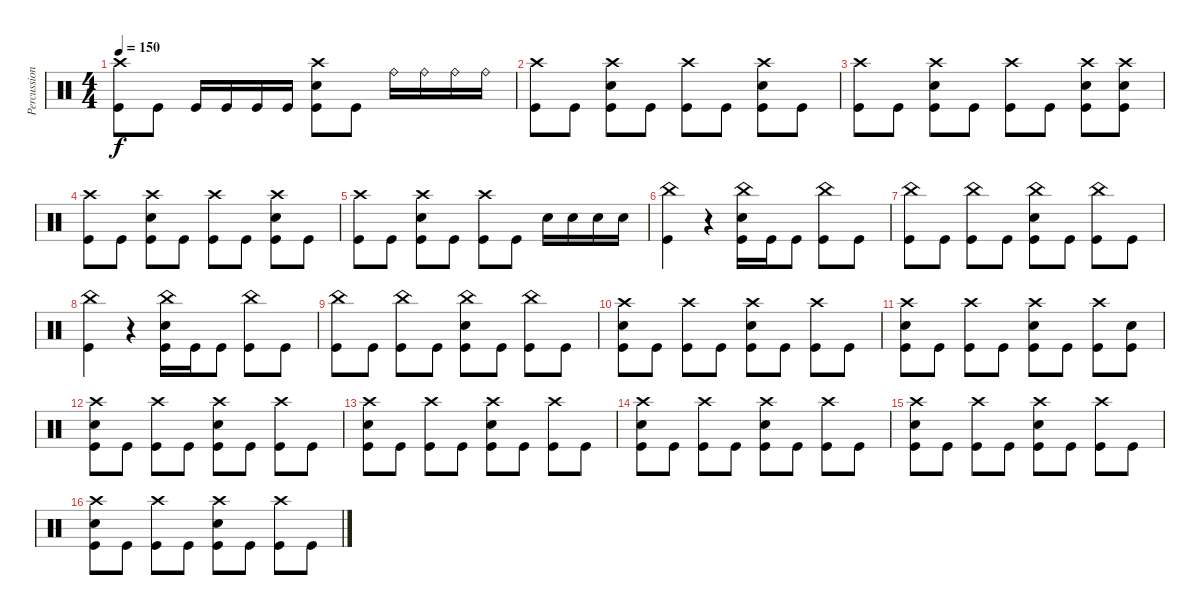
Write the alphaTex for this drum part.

\track ("Percussion" "Percussion") {instrument percussion}
\staff {score}
\articulation defaults
\ts (4 4)
\tempo 150
\clef neutral
\ks c
("Crash high (hit)" "Kick (hit)").8{dy f} "Kick (hit)".8 "Kick (hit)".16 "Kick (hit)".16 "Kick (hit)".16 "Kick (hit)".16 ("Crash high (hit)" "Electric Snare (hit)" "Kick (hit)").8 "Kick (hit)".8 "Ride (bell)".16 "Ride (bell)".16 "Ride (bell)".16 "Ride (bell)".16 |
("Crash high (hit)" "Kick (hit)").8 "Kick (hit)".8 ("Crash high (hit)" "Kick (hit)" "Electric Snare (hit)").8 "Kick (hit)".8 ("Crash high (hit)" "Kick (hit)").8 "Kick (hit)".8 ("Crash high (hit)" "Kick (hit)" "Electric Snare (hit)").8 "Kick (hit)".8 |
("Crash high (hit)" "Kick (hit)").8 "Kick (hit)".8 ("Crash high (hit)" "Kick (hit)" "Electric Snare (hit)").8 "Kick (hit)".8 ("Crash high (hit)" "Kick (hit)").8 "Kick (hit)".8 ("Crash high (hit)" "Kick (hit)" "Electric Snare (hit)").8 ("Crash high (hit)" "Kick (hit)" "Electric Snare (hit)").8 |
("Crash high (hit)" "Kick (hit)").8 "Kick (hit)".8 ("Crash high (hit)" "Kick (hit)" "Electric Snare (hit)").8 "Kick (hit)".8 ("Crash high (hit)" "Kick (hit)").8 "Kick (hit)".8 ("Crash high (hit)" "Kick (hit)" "Electric Snare (hit)").8 "Kick (hit)".8 |
("Crash high (hit)" "Kick (hit)").8 "Kick (hit)".8 ("Crash high (hit)" "Kick (hit)" "Electric Snare (hit)").8 "Kick (hit)".8 ("Crash high (hit)" "Kick (hit)").8 "Kick (hit)".8 "Electric Snare (hit)".16 "Electric Snare (hit)".16 "Electric Snare (hit)".16 "Electric Snare (hit)".16 |
("China (hit)" "Kick (hit)").4 r.4 ("China (hit)" "Electric Snare (hit)" "Kick (hit)").16 "Kick (hit)".16 "Kick (hit)".8 ("China (hit)" "Kick (hit)").8 "Kick (hit)".8 |
("China (hit)" "Kick (hit)").8 "Kick (hit)".8 ("China (hit)" "Kick (hit)").8 "Kick (hit)".8 ("China (hit)" "Electric Snare (hit)" "Kick (hit)").8 "Kick (hit)".8 ("China (hit)" "Kick (hit)").8 "Kick (hit)".8 |
("China (hit)" "Kick (hit)").4 r.4 ("China (hit)" "Electric Snare (hit)" "Kick (hit)").16 "Kick (hit)".16 "Kick (hit)".8 ("China (hit)" "Kick (hit)").8 "Kick (hit)".8 |
("China (hit)" "Kick (hit)").8 "Kick (hit)".8 ("China (hit)" "Kick (hit)").8 "Kick (hit)".8 ("China (hit)" "Electric Snare (hit)" "Kick (hit)").8 "Kick (hit)".8 ("China (hit)" "Kick (hit)").8 "Kick (hit)".8 |
("Kick (hit)" "Crash high (hit)" "Electric Snare (hit)").8 "Kick (hit)".8 ("Kick (hit)" "Crash high (hit)").8 "Kick (hit)".8 ("Kick (hit)" "Crash high (hit)" "Electric Snare (hit)").8 "Kick (hit)".8 ("Kick (hit)" "Crash high (hit)").8 "Kick (hit)".8 |
("Kick (hit)" "Crash high (hit)" "Electric Snare (hit)").8 "Kick (hit)".8 ("Kick (hit)" "Crash high (hit)").8 "Kick (hit)".8 ("Kick (hit)" "Crash high (hit)" "Electric Snare (hit)").8 "Kick (hit)".8 ("Kick (hit)" "Crash high (hit)").8 ("Kick (hit)" "Electric Snare (hit)").8 |
("Kick (hit)" "Crash high (hit)" "Electric Snare (hit)").8 "Kick (hit)".8 ("Kick (hit)" "Crash high (hit)").8 "Kick (hit)".8 ("Kick (hit)" "Crash high (hit)" "Electric Snare (hit)").8 "Kick (hit)".8 ("Kick (hit)" "Crash high (hit)").8 "Kick (hit)".8 |
("Kick (hit)" "Crash high (hit)" "Electric Snare (hit)").8 "Kick (hit)".8 ("Kick (hit)" "Crash high (hit)").8 "Kick (hit)".8 ("Kick (hit)" "Crash high (hit)" "Electric Snare (hit)").8 "Kick (hit)".8 ("Kick (hit)" "Crash high (hit)").8 "Kick (hit)".8 |
("Kick (hit)" "Crash high (hit)" "Electric Snare (hit)").8 "Kick (hit)".8 ("Kick (hit)" "Crash high (hit)").8 "Kick (hit)".8 ("Kick (hit)" "Crash high (hit)" "Electric Snare (hit)").8 "Kick (hit)".8 ("Kick (hit)" "Crash high (hit)").8 "Kick (hit)".8 |
("Kick (hit)" "Crash high (hit)" "Electric Snare (hit)").8 "Kick (hit)".8 ("Kick (hit)" "Crash high (hit)").8 "Kick (hit)".8 ("Kick (hit)" "Crash high (hit)" "Electric Snare (hit)").8 "Kick (hit)".8 ("Kick (hit)" "Crash high (hit)").8 "Kick (hit)".8 |
("Kick (hit)" "Crash high (hit)" "Electric Snare (hit)").8 "Kick (hit)".8 ("Kick (hit)" "Crash high (hit)").8 "Kick (hit)".8 ("Kick (hit)" "Crash high (hit)" "Electric Snare (hit)").8 "Kick (hit)".8 ("Kick (hit)" "Crash high (hit)").8 "Kick (hit)".8
